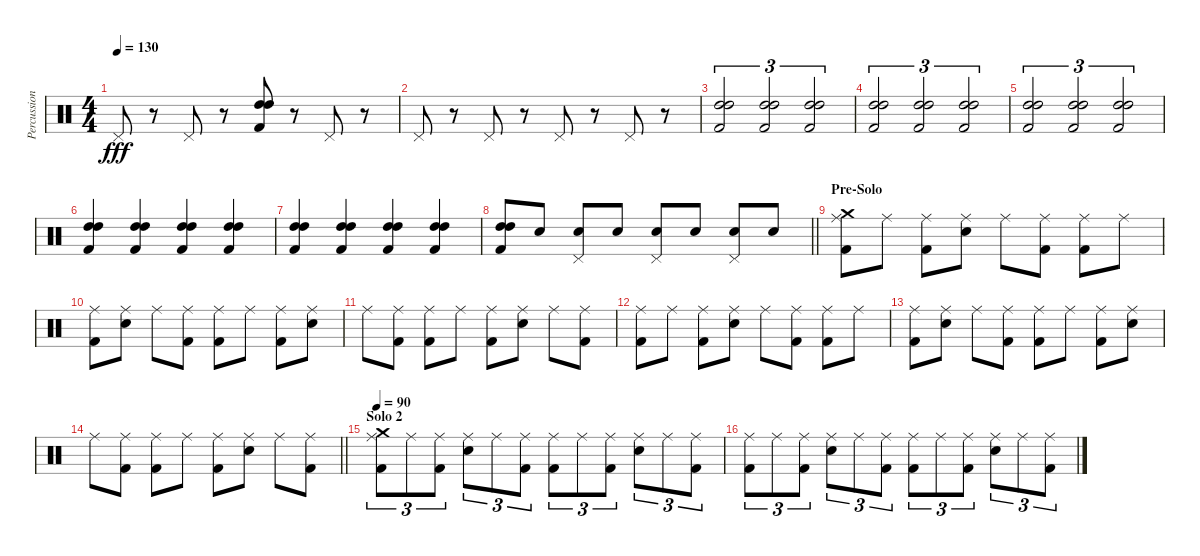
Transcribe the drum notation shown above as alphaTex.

\track ("Percussion" "Percussion") {instrument percussion}
\staff {score}
\articulation defaults
\ts (4 4)
\tempo 130
\clef neutral
\ks c "Pedal Hi-Hat (hit)".8{dy fff}
r.8 "Pedal Hi-Hat (hit)".8 r.8 ("High Tom (hit)" "High Tom (hit)" "Kick (hit) 2").8 r.8 "Pedal Hi-Hat (hit)".8 r.8 |
"Pedal Hi-Hat (hit)".8 r.8 "Pedal Hi-Hat (hit)".8 r.8 "Pedal Hi-Hat (hit)".8 r.8 "Pedal Hi-Hat (hit)".8 r.8 |
("High Tom (hit)" "High Tom (hit)" "Kick (hit) 2").2{tu (3 2)} ("High Tom (hit)" "High Tom (hit)" "Kick (hit) 2").2{tu (3 2)} ("High Tom (hit)" "High Tom (hit)" "Kick (hit) 2").2{tu (3 2)} |
("High Tom (hit)" "High Tom (hit)" "Kick (hit) 2").2{tu (3 2)} ("High Tom (hit)" "High Tom (hit)" "Kick (hit) 2").2{tu (3 2)} ("High Tom (hit)" "High Tom (hit)" "Kick (hit) 2").2{tu (3 2)} |
("High Tom (hit)" "High Tom (hit)" "Kick (hit) 2").2{tu (3 2)} ("High Tom (hit)" "High Tom (hit)" "Kick (hit) 2").2{tu (3 2)} ("High Tom (hit)" "High Tom (hit)" "Kick (hit) 2").2{tu (3 2)} |
("High Tom (hit)" "High Tom (hit)" "Kick (hit) 2").4 ("High Tom (hit)" "High Tom (hit)" "Kick (hit) 2").4 ("High Tom (hit)" "High Tom (hit)" "Kick (hit) 2").4 ("High Tom (hit)" "High Tom (hit)" "Kick (hit) 2").4 |
("High Tom (hit)" "High Tom (hit)" "Kick (hit) 2").4 ("High Tom (hit)" "High Tom (hit)" "Kick (hit) 2").4 ("High Tom (hit)" "High Tom (hit)" "Kick (hit) 2").4 ("High Tom (hit)" "High Tom (hit)" "Kick (hit) 2").4 |
\barLineRight lightlight
("High Tom (hit)" "High Tom (hit)" "Kick (hit) 2").8 "Electric Snare (hit)".8 ("Pedal Hi-Hat (hit)" "Electric Snare (hit)").8 "Electric Snare (hit)".8 ("Pedal Hi-Hat (hit)" "Electric Snare (hit)").8 "Electric Snare (hit)".8 ("Pedal Hi-Hat (hit)" "Electric Snare (hit)").8 "Electric Snare (hit)".8 |
\section ("" "Pre-Solo")
("Ride (middle)" "Crash medium (hit)" "Kick (hit) 2").8 "Ride (middle)".8 ("Ride (middle)" "Kick (hit) 2").8 ("Ride (middle)" "Electric Snare (hit)").8 "Ride (middle)".8 ("Ride (middle)" "Kick (hit) 2").8 ("Ride (middle)" "Kick (hit) 2").8 "Ride (middle)".8 |
("Ride (middle)" "Kick (hit) 2").8 ("Ride (middle)" "Electric Snare (hit)").8 "Ride (middle)".8 ("Ride (middle)" "Kick (hit) 2").8 ("Ride (middle)" "Kick (hit) 2").8 "Ride (middle)".8 ("Ride (middle)" "Kick (hit) 2").8 ("Ride (middle)" "Electric Snare (hit)").8 |
"Ride (middle)".8 ("Ride (middle)" "Kick (hit) 2").8 ("Ride (middle)" "Kick (hit) 2").8 "Ride (middle)".8 ("Ride (middle)" "Kick (hit) 2").8 ("Ride (middle)" "Electric Snare (hit)").8 "Ride (middle)".8 ("Ride (middle)" "Kick (hit) 2").8 |
("Ride (middle)" "Kick (hit) 2").8 "Ride (middle)".8 ("Ride (middle)" "Kick (hit) 2").8 ("Ride (middle)" "Electric Snare (hit)").8 "Ride (middle)".8 ("Ride (middle)" "Kick (hit) 2").8 ("Ride (middle)" "Kick (hit) 2").8 "Ride (middle)".8 |
("Ride (middle)" "Kick (hit) 2").8 ("Ride (middle)" "Electric Snare (hit)").8 "Ride (middle)".8 ("Ride (middle)" "Kick (hit) 2").8 ("Ride (middle)" "Kick (hit) 2").8 "Ride (middle)".8 ("Ride (middle)" "Kick (hit) 2").8 ("Ride (middle)" "Electric Snare (hit)").8 |
\barLineRight lightlight "Ride (middle)".8
("Ride (middle)" "Kick (hit) 2").8 ("Ride (middle)" "Kick (hit) 2").8 "Ride (middle)".8 ("Ride (middle)" "Kick (hit) 2").8 ("Ride (middle)" "Electric Snare (hit)").8 "Ride (middle)".8 ("Ride (middle)" "Kick (hit) 2").8 |
\section ("" "Solo 2")
\tempo 90
("Ride (middle)" "Crash medium (hit)" "Kick (hit) 2").8{tu (3 2)} "Ride (middle)".8{tu (3 2)} ("Ride (middle)" "Kick (hit) 2").8{tu (3 2)} ("Ride (middle)" "Electric Snare (hit)").8{tu (3 2)} "Ride (middle)".8{tu (3 2)} ("Ride (middle)" "Kick (hit) 2").8{tu (3 2)} ("Ride (middle)" "Kick (hit) 2").8{tu (3 2)} "Ride (middle)".8{tu (3 2)} ("Ride (middle)" "Kick (hit) 2").8{tu (3 2)} ("Ride (middle)" "Electric Snare (hit)").8{tu (3 2)} "Ride (middle)".8{tu (3 2)} ("Ride (middle)" "Kick (hit) 2").8{tu (3 2)} |
("Ride (middle)" "Kick (hit) 2").8{tu (3 2)} "Ride (middle)".8{tu (3 2)} ("Ride (middle)" "Kick (hit) 2").8{tu (3 2)} ("Ride (middle)" "Electric Snare (hit)").8{tu (3 2)} "Ride (middle)".8{tu (3 2)} ("Ride (middle)" "Kick (hit) 2").8{tu (3 2)} ("Ride (middle)" "Kick (hit) 2").8{tu (3 2)} "Ride (middle)".8{tu (3 2)} ("Ride (middle)" "Kick (hit) 2").8{tu (3 2)} ("Ride (middle)" "Electric Snare (hit)").8{tu (3 2)} "Ride (middle)".8{tu (3 2)} ("Ride (middle)" "Kick (hit) 2").8{tu (3 2)}
